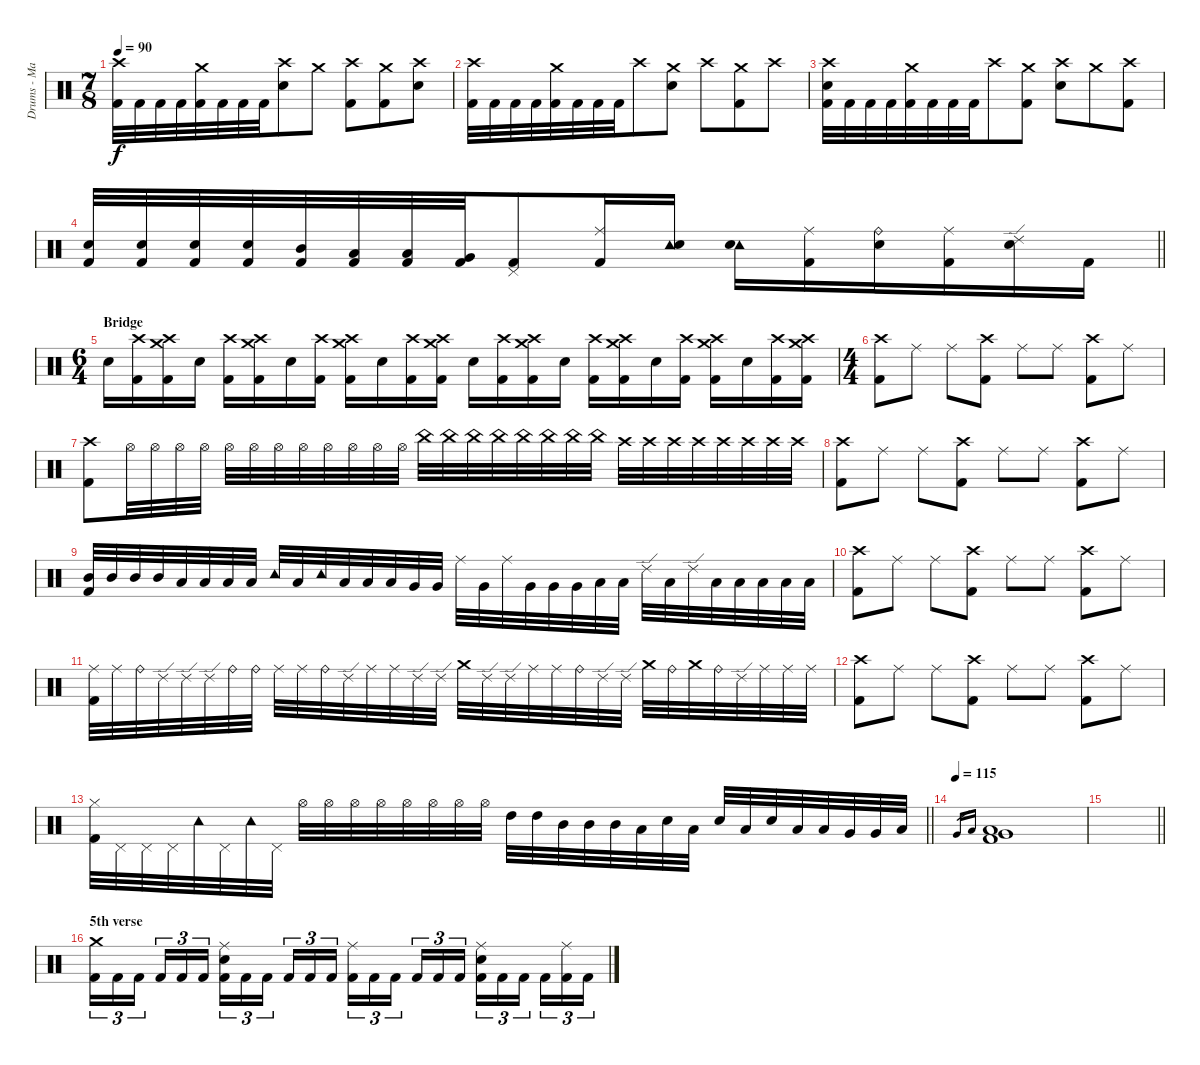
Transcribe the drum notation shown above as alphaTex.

\track ("Drums - Mario Duplantier" "Drums - Ma") {instrument percussion}
\staff {score}
\articulation defaults
\ts (7 8)
\tempo 90
\clef neutral
\ks c
("Crash high (hit)" "Kick (hit) 2").32{dy f} "Kick (hit) 2".32 "Kick (hit) 2".32 "Kick (hit) 2".32 ("Crash medium (hit)" "Kick (hit) 2").32 "Kick (hit) 2".32 "Kick (hit) 2".32 "Kick (hit) 2".32 ("Crash high (hit)" "Electric Snare (hit)").8 "Crash medium (hit)".8 ("Crash high (hit)" "Kick (hit) 2").8 ("Crash medium (hit)" "Kick (hit) 2").8 ("Crash high (hit)" "Electric Snare (hit)").8 |
("Crash high (hit)" "Kick (hit) 2").32 "Kick (hit) 2".32 "Kick (hit) 2".32 "Kick (hit) 2".32 ("Crash medium (hit)" "Kick (hit) 2").32 "Kick (hit) 2".32 "Kick (hit) 2".32 "Kick (hit) 2".32 "Crash high (hit)".8 ("Crash medium (hit)" "Electric Snare (hit)").8 "Crash high (hit)".8 ("Crash medium (hit)" "Kick (hit) 2").8 "Crash high (hit)".8 |
("Crash high (hit)" "Electric Snare (hit)" "Kick (hit) 2").32 "Kick (hit) 2".32 "Kick (hit) 2".32 "Kick (hit) 2".32 ("Crash medium (hit)" "Kick (hit) 2").32 "Kick (hit) 2".32 "Kick (hit) 2".32 "Kick (hit) 2".32 "Crash high (hit)".8 ("Crash medium (hit)" "Kick (hit) 2").8 ("Crash high (hit)" "Electric Snare (hit)").8 "Crash medium (hit)".8 ("Crash high (hit)" "Kick (hit) 2").8 |
\barLineRight lightlight
("Electric Snare (hit)" "Kick (hit) 2").32 ("Electric Snare (hit)" "Kick (hit) 2").32 ("Electric Snare (hit)" "Kick (hit) 2").32 ("Electric Snare (hit)" "Kick (hit) 2").32 ("Mid Tom (hit)" "Kick (hit) 2").32 ("Low Tom (hit)" "Kick (hit) 2").32 ("Low Tom (hit)" "Kick (hit) 2").32 ("Very Low Tom (hit)" "Kick (hit) 2").32 ("Pedal Hi-Hat (hit)" "Kick (hit) 2").8 ("Ride (middle)" "Kick (hit) 2").16 ("Tambourine (hit)" "Electric Snare (hit)").16 ("Tambourine (hit)" "Electric Snare (hit)").16 ("Ride (middle)" "Kick (hit) 2").16 ("Ride (bell)" "Electric Snare (hit)").16 ("Ride (middle)" "Kick (hit) 2").16 ("Ride (edge) 2" "Electric Snare (hit)").16 "Kick (hit) 2".16 |
\ts (6 4)
\section ("" "Bridge")
"Electric Snare (hit)".16 ("Crash high (hit)" "Kick (hit) 2").16 ("Crash medium (hit)" "Crash high (hit)" "Kick (hit) 2").16 "Electric Snare (hit)".16 ("Crash high (hit)" "Kick (hit) 2").16 ("Crash medium (hit)" "Crash high (hit)" "Kick (hit) 2").16 "Electric Snare (hit)".16 ("Crash high (hit)" "Kick (hit) 2").16 ("Crash medium (hit)" "Crash high (hit)" "Kick (hit) 2").16 "Electric Snare (hit)".16 ("Crash high (hit)" "Kick (hit) 2").16 ("Crash medium (hit)" "Crash high (hit)" "Kick (hit) 2").16 "Electric Snare (hit)".16 ("Crash high (hit)" "Kick (hit) 2").16 ("Crash medium (hit)" "Crash high (hit)" "Kick (hit) 2").16 "Electric Snare (hit)".16 ("Crash high (hit)" "Kick (hit) 2").16 ("Crash medium (hit)" "Crash high (hit)" "Kick (hit) 2").16 "Electric Snare (hit)".16 ("Crash high (hit)" "Kick (hit) 2").16 ("Crash medium (hit)" "Crash high (hit)" "Kick (hit) 2").16 "Electric Snare (hit)".16 ("Crash high (hit)" "Kick (hit) 2").16 ("Crash medium (hit)" "Crash high (hit)" "Kick (hit) 2").16 |
\ts (4 4)
("Crash high (hit)" "Kick (hit) 2").8 "Ride (middle)".8 "Ride (middle)".8 ("Crash high (hit)" "Kick (hit) 2").8 "Ride (middle)".8 "Ride (middle)".8 ("Crash high (hit)" "Kick (hit) 2").8 "Ride (middle)".8 |
("Crash high (hit)" "Kick (hit) 2").8 "Hi-Hat (open)".32 "Hi-Hat (open)".32 "Hi-Hat (open)".32 "Hi-Hat (open)".32 "Hi-Hat (open)".32 "Hi-Hat (open)".32 "Hi-Hat (open)".32 "Hi-Hat (open)".32 "Hi-Hat (open)".32 "Hi-Hat (open)".32 "Hi-Hat (open)".32 "Hi-Hat (open)".32 "China (hit)".32 "China (hit)".32 "China (hit)".32 "China (hit)".32 "China (hit)".32 "China (hit)".32 "China (hit)".32 "China (hit)".32 "Crash high (hit)".32 "Crash high (hit)".32 "Crash high (hit)".32 "Crash high (hit)".32 "Crash high (hit)".32 "Crash high (hit)".32 "Crash high (hit)".32 "Crash high (hit)".32 |
("Crash high (hit)" "Kick (hit) 2").8 "Ride (middle)".8 "Ride (middle)".8 ("Crash high (hit)" "Kick (hit) 2").8 "Ride (middle)".8 "Ride (middle)".8 ("Crash high (hit)" "Kick (hit) 2").8 "Ride (middle)".8 |
("Mid Tom (hit)" "Kick (hit) 2").32 "Mid Tom (hit)".32 "Mid Tom (hit)".32 "Mid Tom (hit)".32 "Low Tom (hit)".32 "Low Tom (hit)".32 "Low Tom (hit)".32 "Low Tom (hit)".32 "Tambourine (hit)".32 "Low Tom (hit)".32 "Tambourine (hit)".32 "Low Tom (hit)".32 "Low Tom (hit)".32 "Low Tom (hit)".32 "Very Low Tom (hit)".32 "Very Low Tom (hit)".32 "Ride (middle)".32 "Very Low Tom (hit)".32 "Ride (middle)".32 "Very Low Tom (hit)".32 "Very Low Tom (hit)".32 "Very Low Tom (hit)".32 "Low Floor Tom (hit)".32 "Low Floor Tom (hit)".32 "Ride (edge) 2".32 "Low Floor Tom (hit)".32 "Ride (edge) 2".32 "Low Floor Tom (hit)".32 "Low Floor Tom (hit)".32 "Low Floor Tom (hit)".32 "Low Floor Tom (hit)".32 "Low Floor Tom (hit)".32 |
("Crash high (hit)" "Kick (hit) 2").8 "Ride (middle)".8 "Ride (middle)".8 ("Crash high (hit)" "Kick (hit) 2").8 "Ride (middle)".8 "Ride (middle)".8 ("Crash high (hit)" "Kick (hit) 2").8 "Ride (middle)".8 |
("Ride (middle)" "Kick (hit) 2").32 "Ride (middle)".32 "Ride (bell)".32 "Ride (edge) 2".32 "Ride (edge) 2".32 "Ride (edge) 2".32 "Ride (bell)".32 "Ride (bell)".32 "Ride (middle)".32 "Ride (middle)".32 "Ride (bell)".32 "Ride (edge) 2".32 "Ride (middle)".32 "Ride (middle)".32 "Ride (edge) 2".32 "Ride (edge) 2".32 "Crash medium (hit)".32 "Ride (edge) 2".32 "Ride (edge) 2".32 "Ride (middle)".32 "Ride (middle)".32 "Ride (bell)".32 "Ride (edge) 2".32 "Ride (edge) 2".32 "Crash medium (hit)".32 "Ride (bell)".32 "Crash medium (hit)".32 "Ride (bell)".32 "Ride (edge) 2".32 "Ride (middle)".32 "Ride (middle)".32 "Ride (middle)".32 |
("Crash high (hit)" "Kick (hit) 2").8 "Ride (middle)".8 "Ride (middle)".8 ("Crash high (hit)" "Kick (hit) 2").8 "Ride (middle)".8 "Ride (middle)".8 ("Crash high (hit)" "Kick (hit) 2").8 "Ride (middle)".8 |
\barLineRight lightlight
("Hi-Hat (closed)" "Kick (hit) 2").32 "Pedal Hi-Hat (hit)".32 "Pedal Hi-Hat (hit)".32 "Pedal Hi-Hat (hit)".32 "Tambourine (hit)".32 "Pedal Hi-Hat (hit)".32 "Tambourine (hit)".32 "Pedal Hi-Hat (hit)".32 "Hi-Hat (open)".32 "Hi-Hat (open)".32 "Hi-Hat (open)".32 "Hi-Hat (open)".32 "Hi-Hat (open)".32 "Hi-Hat (open)".32 "Hi-Hat (open)".32 "Hi-Hat (open)".32 "High Tom (hit)".32 "High Tom (hit)".32 "Mid Tom (hit)".32 "Mid Tom (hit)".32 "Mid Tom (hit)".32 "Low Tom (hit)".32 "Electric Snare (hit)".32 "Low Tom (hit)".32 "Electric Snare (hit)".32 "Low Tom (hit)".32 "Electric Snare (hit)".32 "Low Tom (hit)".32 "Low Tom (hit)".32 "Very Low Tom (hit)".32 "Very Low Tom (hit)".32 "Low Floor Tom (hit)".32 |
\section ("" "")
\tempo (115)
"Very Low Tom (hit)".16{gr} "Low Floor Tom (hit)".16{gr} ("Very Low Tom (hit)" "Low Floor Tom (hit)" "Kick (hit) 2").1 |
\barLineRight lightlight
|
\section ("" "5th verse")
("Crash medium (hit)" "Kick (hit) 2").16{tu (3 2)} "Kick (hit) 2".16{tu (3 2)} "Kick (hit) 2".16{tu (3 2) beam splitsecondary} "Kick (hit) 2".16{tu (3 2)} "Kick (hit) 2".16{tu (3 2)} "Kick (hit) 2".16{tu (3 2)} ("Ride (middle)" "Electric Snare (hit)" "Kick (hit) 2").16{tu (3 2)} "Kick (hit) 2".16{tu (3 2)} "Kick (hit) 2".16{tu (3 2) beam splitsecondary} "Kick (hit) 2".16{tu (3 2)} "Kick (hit) 2".16{tu (3 2)} "Kick (hit) 2".16{tu (3 2)} ("Ride (middle)" "Kick (hit) 2").16{tu (3 2)} "Kick (hit) 2".16{tu (3 2)} "Kick (hit) 2".16{tu (3 2) beam splitsecondary} "Kick (hit) 2".16{tu (3 2)} "Kick (hit) 2".16{tu (3 2)} "Kick (hit) 2".16{tu (3 2)} ("Ride (middle)" "Electric Snare (hit)" "Kick (hit) 2").16{tu (3 2)} "Kick (hit) 2".16{tu (3 2)} "Kick (hit) 2".16{tu (3 2) beam splitsecondary} "Kick (hit) 2".16{tu (3 2)} ("Ride (middle)" "Kick (hit) 2").16{tu (3 2)} "Kick (hit) 2".16{tu (3 2)}
